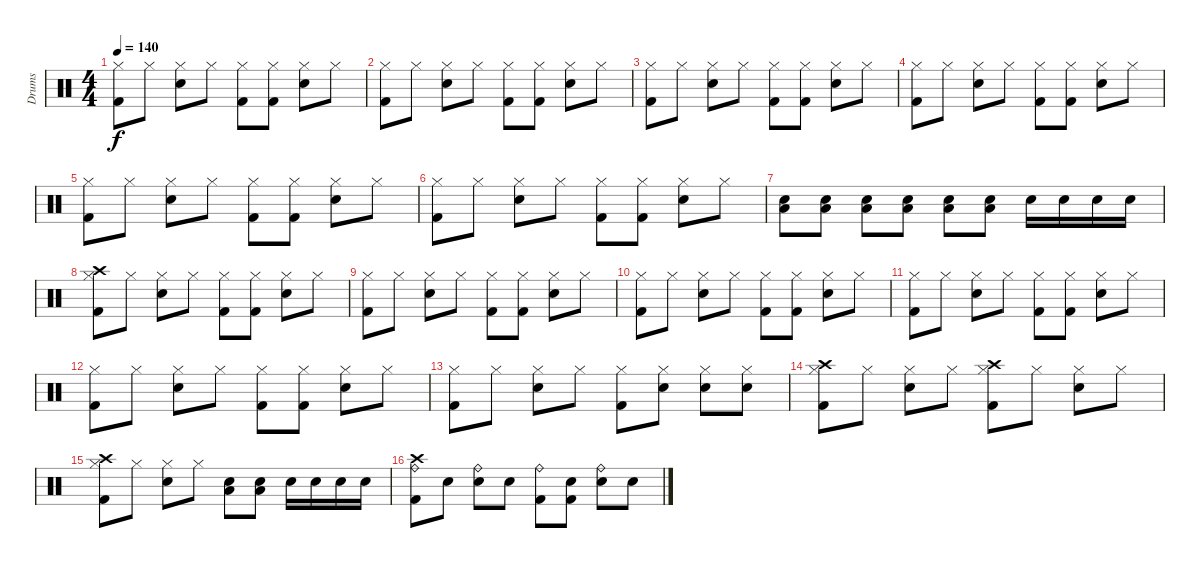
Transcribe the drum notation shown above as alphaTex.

\track ("Drums" "Drums") {instrument percussion}
\staff {score}
\articulation defaults
\ts (4 4)
\tempo 140
\clef neutral
\ks c
("Hi-Hat (closed)" "Kick (hit) 2").8{dy f} "Hi-Hat (closed)".8 ("Hi-Hat (closed)" "Electric Snare (hit)").8 "Hi-Hat (closed)".8 ("Hi-Hat (closed)" "Kick (hit) 2").8 ("Hi-Hat (closed)" "Kick (hit) 2").8 ("Hi-Hat (closed)" "Electric Snare (hit)").8 "Hi-Hat (closed)".8 |
("Hi-Hat (closed)" "Kick (hit) 2").8 "Hi-Hat (closed)".8 ("Hi-Hat (closed)" "Electric Snare (hit)").8 "Hi-Hat (closed)".8 ("Hi-Hat (closed)" "Kick (hit) 2").8 ("Hi-Hat (closed)" "Kick (hit) 2").8 ("Hi-Hat (closed)" "Electric Snare (hit)").8 "Hi-Hat (closed)".8 |
("Hi-Hat (closed)" "Kick (hit) 2").8 "Hi-Hat (closed)".8 ("Hi-Hat (closed)" "Electric Snare (hit)").8 "Hi-Hat (closed)".8 ("Hi-Hat (closed)" "Kick (hit) 2").8 ("Hi-Hat (closed)" "Kick (hit) 2").8 ("Hi-Hat (closed)" "Electric Snare (hit)").8 "Hi-Hat (closed)".8 |
("Hi-Hat (closed)" "Kick (hit) 2").8 "Hi-Hat (closed)".8 ("Hi-Hat (closed)" "Electric Snare (hit)").8 "Hi-Hat (closed)".8 ("Hi-Hat (closed)" "Kick (hit) 2").8 ("Hi-Hat (closed)" "Kick (hit) 2").8 ("Hi-Hat (closed)" "Electric Snare (hit)").8 "Hi-Hat (closed)".8 |
("Hi-Hat (closed)" "Kick (hit) 2").8 "Hi-Hat (closed)".8 ("Hi-Hat (closed)" "Electric Snare (hit)").8 "Hi-Hat (closed)".8 ("Hi-Hat (closed)" "Kick (hit) 2").8 ("Hi-Hat (closed)" "Kick (hit) 2").8 ("Hi-Hat (closed)" "Electric Snare (hit)").8 "Hi-Hat (closed)".8 |
("Hi-Hat (closed)" "Kick (hit) 2").8 "Hi-Hat (closed)".8 ("Hi-Hat (closed)" "Electric Snare (hit)").8 "Hi-Hat (closed)".8 ("Hi-Hat (closed)" "Kick (hit) 2").8 ("Hi-Hat (closed)" "Kick (hit) 2").8 ("Hi-Hat (closed)" "Electric Snare (hit)").8 "Hi-Hat (closed)".8 |
("Electric Snare (hit)" "Low Tom (hit)").8 ("Electric Snare (hit)" "Low Tom (hit)").8 ("Electric Snare (hit)" "Low Tom (hit)").8 ("Electric Snare (hit)" "Low Tom (hit)").8 ("Electric Snare (hit)" "Low Tom (hit)").8 ("Electric Snare (hit)" "Low Tom (hit)").8 "Electric Snare (hit)".16 "Electric Snare (hit)".16 "Electric Snare (hit)".16 "Electric Snare (hit)".16 |
("Hi-Hat (closed)" "Kick (hit) 2" "Crash high (hit)").8 "Hi-Hat (closed)".8 ("Hi-Hat (closed)" "Electric Snare (hit)").8 "Hi-Hat (closed)".8 ("Hi-Hat (closed)" "Kick (hit) 2").8 ("Hi-Hat (closed)" "Kick (hit) 2").8 ("Hi-Hat (closed)" "Electric Snare (hit)").8 "Hi-Hat (closed)".8 |
("Hi-Hat (closed)" "Kick (hit) 2").8 "Hi-Hat (closed)".8 ("Hi-Hat (closed)" "Electric Snare (hit)").8 "Hi-Hat (closed)".8 ("Hi-Hat (closed)" "Kick (hit) 2").8 ("Hi-Hat (closed)" "Kick (hit) 2").8 ("Hi-Hat (closed)" "Electric Snare (hit)").8 "Hi-Hat (closed)".8 |
("Hi-Hat (closed)" "Kick (hit) 2").8 "Hi-Hat (closed)".8 ("Hi-Hat (closed)" "Electric Snare (hit)").8 "Hi-Hat (closed)".8 ("Hi-Hat (closed)" "Kick (hit) 2").8 ("Hi-Hat (closed)" "Kick (hit) 2").8 ("Hi-Hat (closed)" "Electric Snare (hit)").8 "Hi-Hat (closed)".8 |
("Hi-Hat (closed)" "Kick (hit) 2").8 "Hi-Hat (closed)".8 ("Hi-Hat (closed)" "Electric Snare (hit)").8 "Hi-Hat (closed)".8 ("Hi-Hat (closed)" "Kick (hit) 2").8 ("Hi-Hat (closed)" "Kick (hit) 2").8 ("Hi-Hat (closed)" "Electric Snare (hit)").8 "Hi-Hat (closed)".8 |
("Hi-Hat (closed)" "Kick (hit) 2").8 "Hi-Hat (closed)".8 ("Hi-Hat (closed)" "Electric Snare (hit)").8 "Hi-Hat (closed)".8 ("Hi-Hat (closed)" "Kick (hit) 2").8 ("Hi-Hat (closed)" "Kick (hit) 2").8 ("Hi-Hat (closed)" "Electric Snare (hit)").8 "Hi-Hat (closed)".8 |
("Hi-Hat (closed)" "Kick (hit) 2").8 "Hi-Hat (closed)".8 ("Hi-Hat (closed)" "Electric Snare (hit)").8 "Hi-Hat (closed)".8 ("Hi-Hat (closed)" "Kick (hit) 2").8 ("Hi-Hat (closed)" "Electric Snare (hit)").8 ("Hi-Hat (closed)" "Electric Snare (hit)").8 ("Hi-Hat (closed)" "Electric Snare (hit)").8 |
("Hi-Hat (closed)" "Crash high (hit)" "Kick (hit) 2").8 "Hi-Hat (closed)".8 ("Hi-Hat (closed)" "Electric Snare (hit)").8 "Hi-Hat (closed)".8 ("Hi-Hat (closed)" "Crash high (hit)" "Kick (hit) 2").8 "Hi-Hat (closed)".8 ("Hi-Hat (closed)" "Electric Snare (hit)").8 "Hi-Hat (closed)".8 |
("Hi-Hat (closed)" "Crash high (hit)" "Kick (hit) 2").8 "Hi-Hat (closed)".8 ("Hi-Hat (closed)" "Electric Snare (hit)").8 "Hi-Hat (closed)".8 ("Electric Snare (hit)" "Low Tom (hit)").8 ("Electric Snare (hit)" "Low Tom (hit)").8 "Electric Snare (hit)".16 "Electric Snare (hit)".16 "Electric Snare (hit)".16 "Electric Snare (hit)".16 |
("Ride (bell)" "Kick (hit) 2" "Crash high (hit)").8 "Snare (hit)"{x}.8 ("Ride (bell)" "Electric Snare (hit)").8 "Snare (hit)"{x}.8 ("Ride (bell)" "Kick (hit) 2").8 ("Snare (hit)"{x} "Kick (hit) 2").8 ("Ride (bell)" "Electric Snare (hit)").8 "Snare (hit)"{x}.8
